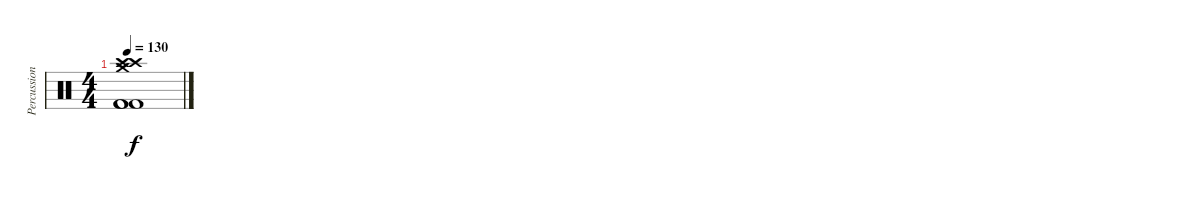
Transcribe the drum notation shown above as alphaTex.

\track ("Percussion" "Percussion") {instrument percussion}
\staff {score}
\articulation defaults
\ts (4 4)
\tempo 130
\clef neutral
\ks c
("Crash high (hit)" "Crash medium (hit)" "Crash high (hit)" "Kick (hit) 2" "Kick (hit) 2" "Kick (hit) 2").1{dy f}
